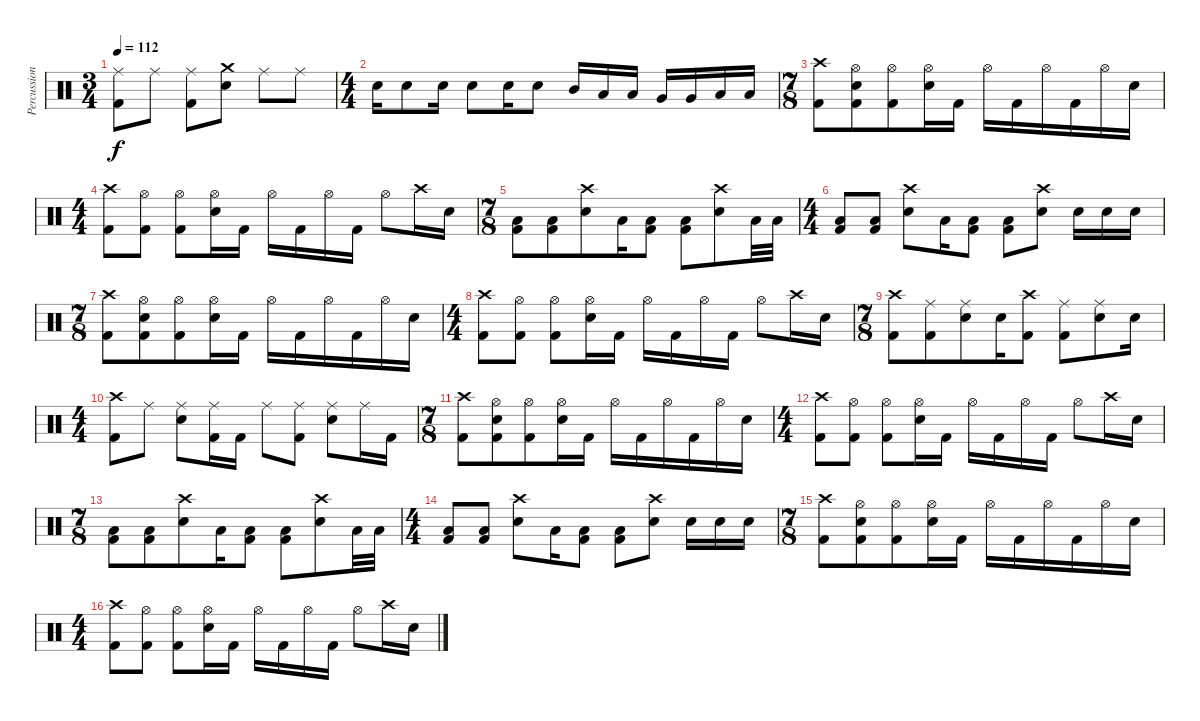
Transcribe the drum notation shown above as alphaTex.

\track ("Percussion" "Percussion") {instrument percussion}
\staff {score}
\articulation defaults
\ts (3 4)
\tempo 112
\clef neutral
\ks c
("Ride (middle)" "Kick (hit) 2").8{dy f} "Ride (middle)".8 ("Ride (middle)" "Kick (hit) 2").8 ("Crash medium (hit)" "Snare (hit) 2").8 "Ride (middle)".8 "Ride (middle)".8 |
\ts (4 4)
"Snare (hit) 2".16 "Snare (hit) 2".8 "Snare (hit) 2".16 "Snare (hit) 2".8 "Snare (hit) 2".16 "Snare (hit) 2".8 "Mid Tom (hit)".16 "Low Tom (hit)".16 "Low Tom (hit)".16 "Very Low Tom (hit)".16 "Very Low Tom (hit)".16 "Low Floor Tom (hit)".16 "Low Floor Tom (hit)".16 |
\ts (7 8)
("Crash high (hit)" "Kick (hit) 2").8 ("Hi-Hat (open)" "Snare (hit) 2" "Kick (hit) 2").8 ("Hi-Hat (open)" "Kick (hit) 2").8 ("Hi-Hat (open)" "Snare (hit) 2").16 "Kick (hit) 2".16 "Hi-Hat (open)".16 "Kick (hit) 2".16 "Hi-Hat (open)".16 "Kick (hit) 2".16 "Hi-Hat (open)".16 "Snare (hit) 2".16 |
\ts (4 4)
("Crash high (hit)" "Kick (hit) 2").8 ("Hi-Hat (open)" "Kick (hit) 2").8 ("Hi-Hat (open)" "Kick (hit) 2").8 ("Hi-Hat (open)" "Snare (hit) 2").16 "Kick (hit) 2".16 "Hi-Hat (open)".16 "Kick (hit) 2".16 "Hi-Hat (open)".16 "Kick (hit) 2".16 "Hi-Hat (open)".8 "Crash high (hit)".16 "Snare (hit) 2".16 |
\ts (7 8)
("Low Floor Tom (hit)" "Kick (hit) 2").8 ("Low Floor Tom (hit)" "Kick (hit) 2").8 ("Crash high (hit)" "Snare (hit) 2").8 "Low Tom (hit)".16 ("Low Floor Tom (hit)" "Kick (hit) 2").8 ("Low Floor Tom (hit)" "Kick (hit) 2").8 ("Crash high (hit)" "Snare (hit) 2").8 "Low Tom (hit)".32 "Low Tom (hit)".32 |
\ts (4 4)
("Low Floor Tom (hit)" "Kick (hit) 2").8 ("Low Floor Tom (hit)" "Kick (hit) 2").8 ("Crash high (hit)" "Snare (hit) 2").8 "Low Tom (hit)".16 ("Low Floor Tom (hit)" "Kick (hit) 2").8 ("Low Floor Tom (hit)" "Kick (hit) 2").8 ("Crash high (hit)" "Snare (hit) 2").8 "Snare (hit) 2".16 "Snare (hit) 2".16 "Snare (hit) 2".16 |
\ts (7 8)
("Crash high (hit)" "Kick (hit) 2").8 ("Hi-Hat (open)" "Snare (hit) 2" "Kick (hit) 2").8 ("Hi-Hat (open)" "Kick (hit) 2").8 ("Hi-Hat (open)" "Snare (hit) 2").16 "Kick (hit) 2".16 "Hi-Hat (open)".16 "Kick (hit) 2".16 "Hi-Hat (open)".16 "Kick (hit) 2".16 "Hi-Hat (open)".16 "Snare (hit) 2".16 |
\ts (4 4)
("Crash high (hit)" "Kick (hit) 2").8 ("Hi-Hat (open)" "Kick (hit) 2").8 ("Hi-Hat (open)" "Kick (hit) 2").8 ("Hi-Hat (open)" "Snare (hit) 2").16 "Kick (hit) 2".16 "Hi-Hat (open)".16 "Kick (hit) 2".16 "Hi-Hat (open)".16 "Kick (hit) 2".16 "Hi-Hat (open)".8 "Crash high (hit)".16 "Snare (hit) 2".16 |
\ts (7 8)
("Crash high (hit)" "Kick (hit) 2").8 ("Ride (middle)" "Kick (hit) 2").8 ("Ride (middle)" "Snare (hit) 2").8 "Snare (hit) 2".16 ("Crash high (hit)" "Kick (hit) 2").8 ("Ride (middle)" "Kick (hit) 2").8 ("Ride (middle)" "Snare (hit) 2").8 "Snare (hit) 2".16 |
\ts (4 4)
("Crash high (hit)" "Kick (hit) 2").8 "Ride (middle)".8 ("Ride (middle)" "Snare (hit) 2").8 ("Ride (middle)" "Kick (hit) 2").16 "Kick (hit) 2".16 "Ride (middle)".8 ("Ride (middle)" "Kick (hit) 2").8 ("Ride (middle)" "Snare (hit) 2").8 "Ride (middle)".16 "Kick (hit) 2".16 |
\ts (7 8)
("Crash high (hit)" "Kick (hit) 2").8 ("Hi-Hat (open)" "Snare (hit) 2" "Kick (hit) 2").8 ("Hi-Hat (open)" "Kick (hit) 2").8 ("Hi-Hat (open)" "Snare (hit) 2").16 "Kick (hit) 2".16 "Hi-Hat (open)".16 "Kick (hit) 2".16 "Hi-Hat (open)".16 "Kick (hit) 2".16 "Hi-Hat (open)".16 "Snare (hit) 2".16 |
\ts (4 4)
("Crash high (hit)" "Kick (hit) 2").8 ("Hi-Hat (open)" "Kick (hit) 2").8 ("Hi-Hat (open)" "Kick (hit) 2").8 ("Hi-Hat (open)" "Snare (hit) 2").16 "Kick (hit) 2".16 "Hi-Hat (open)".16 "Kick (hit) 2".16 "Hi-Hat (open)".16 "Kick (hit) 2".16 "Hi-Hat (open)".8 "Crash high (hit)".16 "Snare (hit) 2".16 |
\ts (7 8)
("Low Floor Tom (hit)" "Kick (hit) 2").8 ("Low Floor Tom (hit)" "Kick (hit) 2").8 ("Crash high (hit)" "Snare (hit) 2").8 "Low Tom (hit)".16 ("Low Floor Tom (hit)" "Kick (hit) 2").8 ("Low Floor Tom (hit)" "Kick (hit) 2").8 ("Crash high (hit)" "Snare (hit) 2").8 "Low Tom (hit)".32 "Low Tom (hit)".32 |
\ts (4 4)
("Low Floor Tom (hit)" "Kick (hit) 2").8 ("Low Floor Tom (hit)" "Kick (hit) 2").8 ("Crash high (hit)" "Snare (hit) 2").8 "Low Tom (hit)".16 ("Low Floor Tom (hit)" "Kick (hit) 2").8 ("Low Floor Tom (hit)" "Kick (hit) 2").8 ("Crash high (hit)" "Snare (hit) 2").8 "Snare (hit) 2".16 "Snare (hit) 2".16 "Snare (hit) 2".16 |
\ts (7 8)
("Crash high (hit)" "Kick (hit) 2").8 ("Hi-Hat (open)" "Snare (hit) 2" "Kick (hit) 2").8 ("Hi-Hat (open)" "Kick (hit) 2").8 ("Hi-Hat (open)" "Snare (hit) 2").16 "Kick (hit) 2".16 "Hi-Hat (open)".16 "Kick (hit) 2".16 "Hi-Hat (open)".16 "Kick (hit) 2".16 "Hi-Hat (open)".16 "Snare (hit) 2".16 |
\ts (4 4)
("Crash high (hit)" "Kick (hit) 2").8 ("Hi-Hat (open)" "Kick (hit) 2").8 ("Hi-Hat (open)" "Kick (hit) 2").8 ("Hi-Hat (open)" "Snare (hit) 2").16 "Kick (hit) 2".16 "Hi-Hat (open)".16 "Kick (hit) 2".16 "Hi-Hat (open)".16 "Kick (hit) 2".16 "Hi-Hat (open)".8 "Crash high (hit)".16 "Snare (hit) 2".16
